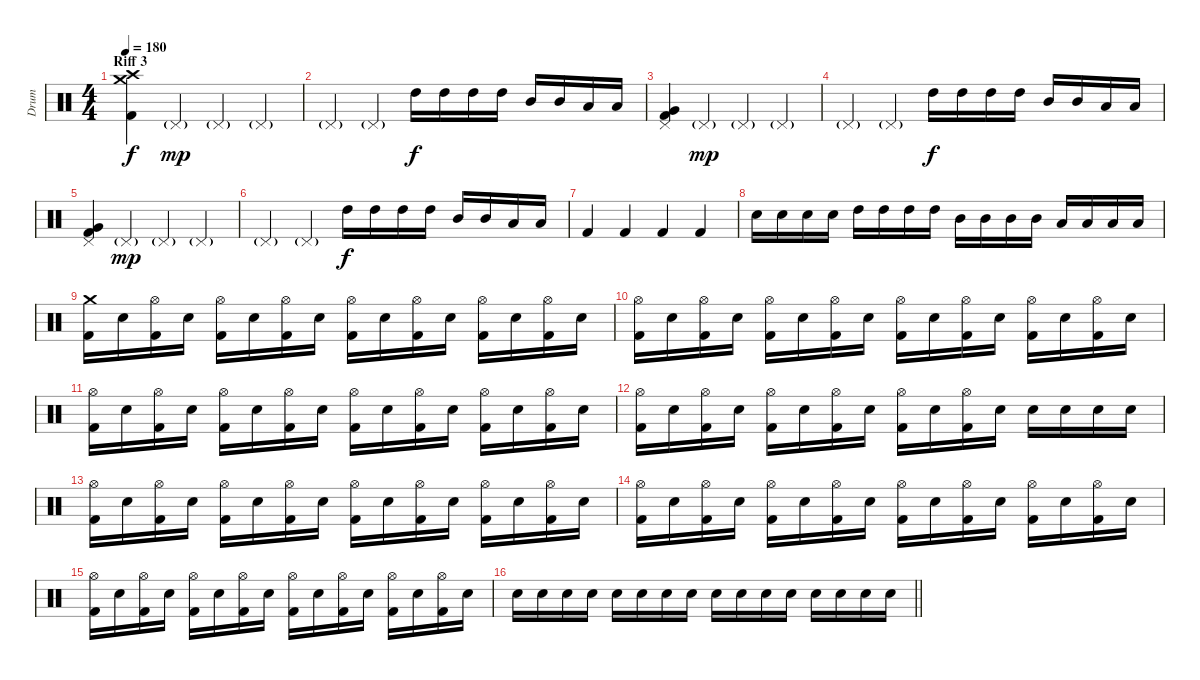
\track ("Drum" "Drum") {instrument percussion}
\staff {score}
\articulation defaults
\ts (4 4)
\section ("" "Riff 3")
\tempo 180
\clef neutral
\ks c
("Crash medium (hit)" "Crash high (hit)" "Kick (hit) 2").4{dy f} "Pedal Hi-Hat (hit)"{g}.4{dy mp} "Pedal Hi-Hat (hit)"{g}.4 "Pedal Hi-Hat (hit)"{g}.4 |
"Pedal Hi-Hat (hit)"{g}.4 "Pedal Hi-Hat (hit)"{g}.4 "High Tom (hit)".16{dy f} "High Tom (hit)".16 "High Tom (hit)".16 "High Tom (hit)".16 "Mid Tom (hit)".16 "Mid Tom (hit)".16 "Low Tom (hit)".16 "Low Tom (hit)".16 |
("Pedal Hi-Hat (hit)" "Very Low Tom (hit)" "Kick (hit) 2").4 "Pedal Hi-Hat (hit)"{g}.4{dy mp} "Pedal Hi-Hat (hit)"{g}.4 "Pedal Hi-Hat (hit)"{g}.4 |
"Pedal Hi-Hat (hit)"{g}.4 "Pedal Hi-Hat (hit)"{g}.4 "High Tom (hit)".16{dy f} "High Tom (hit)".16 "High Tom (hit)".16 "High Tom (hit)".16 "Mid Tom (hit)".16 "Mid Tom (hit)".16 "Low Tom (hit)".16 "Low Tom (hit)".16 |
("Pedal Hi-Hat (hit)" "Very Low Tom (hit)" "Kick (hit) 2").4 "Pedal Hi-Hat (hit)"{g}.4{dy mp} "Pedal Hi-Hat (hit)"{g}.4 "Pedal Hi-Hat (hit)"{g}.4 |
"Pedal Hi-Hat (hit)"{g}.4 "Pedal Hi-Hat (hit)"{g}.4 "High Tom (hit)".16{dy f} "High Tom (hit)".16 "High Tom (hit)".16 "High Tom (hit)".16 "Mid Tom (hit)".16 "Mid Tom (hit)".16 "Low Tom (hit)".16 "Low Tom (hit)".16 |
"Kick (hit) 2".4 "Kick (hit) 2".4 "Kick (hit) 2".4 "Kick (hit) 2".4 |
"Electric Snare (hit)".16 "Electric Snare (hit)".16 "Electric Snare (hit)".16 "Electric Snare (hit)".16 "High Tom (hit)".16 "High Tom (hit)".16 "High Tom (hit)".16 "High Tom (hit)".16 "Mid Tom (hit)".16 "Mid Tom (hit)".16 "Mid Tom (hit)".16 "Mid Tom (hit)".16 "Low Tom (hit)".16 "Low Tom (hit)".16 "Low Tom (hit)".16 "Low Tom (hit)".16 |
("Crash medium (hit)" "Kick (hit) 2").16 "Electric Snare (hit)".16 ("Hi-Hat (open)" "Kick (hit) 2").16 "Electric Snare (hit)".16 ("Hi-Hat (open)" "Kick (hit) 2").16 "Electric Snare (hit)".16 ("Hi-Hat (open)" "Kick (hit) 2").16 "Electric Snare (hit)".16 ("Hi-Hat (open)" "Kick (hit) 2").16 "Electric Snare (hit)".16 ("Hi-Hat (open)" "Kick (hit) 2").16 "Electric Snare (hit)".16 ("Hi-Hat (open)" "Kick (hit) 2").16 "Electric Snare (hit)".16 ("Hi-Hat (open)" "Kick (hit) 2").16 "Electric Snare (hit)".16 |
("Hi-Hat (open)" "Kick (hit) 2").16 "Electric Snare (hit)".16 ("Hi-Hat (open)" "Kick (hit) 2").16 "Electric Snare (hit)".16 ("Hi-Hat (open)" "Kick (hit) 2").16 "Electric Snare (hit)".16 ("Hi-Hat (open)" "Kick (hit) 2").16 "Electric Snare (hit)".16 ("Hi-Hat (open)" "Kick (hit) 2").16 "Electric Snare (hit)".16 ("Hi-Hat (open)" "Kick (hit) 2").16 "Electric Snare (hit)".16 ("Hi-Hat (open)" "Kick (hit) 2").16 "Electric Snare (hit)".16 ("Hi-Hat (open)" "Kick (hit) 2").16 "Electric Snare (hit)".16 |
("Hi-Hat (open)" "Kick (hit) 2").16 "Electric Snare (hit)".16 ("Hi-Hat (open)" "Kick (hit) 2").16 "Electric Snare (hit)".16 ("Hi-Hat (open)" "Kick (hit) 2").16 "Electric Snare (hit)".16 ("Hi-Hat (open)" "Kick (hit) 2").16 "Electric Snare (hit)".16 ("Hi-Hat (open)" "Kick (hit) 2").16 "Electric Snare (hit)".16 ("Hi-Hat (open)" "Kick (hit) 2").16 "Electric Snare (hit)".16 ("Hi-Hat (open)" "Kick (hit) 2").16 "Electric Snare (hit)".16 ("Hi-Hat (open)" "Kick (hit) 2").16 "Electric Snare (hit)".16 |
("Hi-Hat (open)" "Kick (hit) 2").16 "Electric Snare (hit)".16 ("Hi-Hat (open)" "Kick (hit) 2").16 "Electric Snare (hit)".16 ("Hi-Hat (open)" "Kick (hit) 2").16 "Electric Snare (hit)".16 ("Hi-Hat (open)" "Kick (hit) 2").16 "Electric Snare (hit)".16 ("Hi-Hat (open)" "Kick (hit) 2").16 "Electric Snare (hit)".16 ("Hi-Hat (open)" "Kick (hit) 2").16 "Electric Snare (hit)".16 "Electric Snare (hit)".16 "Electric Snare (hit)".16 "Electric Snare (hit)".16 "Electric Snare (hit)".16 |
("Hi-Hat (open)" "Kick (hit) 2").16 "Electric Snare (hit)".16 ("Hi-Hat (open)" "Kick (hit) 2").16 "Electric Snare (hit)".16 ("Hi-Hat (open)" "Kick (hit) 2").16 "Electric Snare (hit)".16 ("Hi-Hat (open)" "Kick (hit) 2").16 "Electric Snare (hit)".16 ("Hi-Hat (open)" "Kick (hit) 2").16 "Electric Snare (hit)".16 ("Hi-Hat (open)" "Kick (hit) 2").16 "Electric Snare (hit)".16 ("Hi-Hat (open)" "Kick (hit) 2").16 "Electric Snare (hit)".16 ("Hi-Hat (open)" "Kick (hit) 2").16 "Electric Snare (hit)".16 |
("Hi-Hat (open)" "Kick (hit) 2").16 "Electric Snare (hit)".16 ("Hi-Hat (open)" "Kick (hit) 2").16 "Electric Snare (hit)".16 ("Hi-Hat (open)" "Kick (hit) 2").16 "Electric Snare (hit)".16 ("Hi-Hat (open)" "Kick (hit) 2").16 "Electric Snare (hit)".16 ("Hi-Hat (open)" "Kick (hit) 2").16 "Electric Snare (hit)".16 ("Hi-Hat (open)" "Kick (hit) 2").16 "Electric Snare (hit)".16 ("Hi-Hat (open)" "Kick (hit) 2").16 "Electric Snare (hit)".16 ("Hi-Hat (open)" "Kick (hit) 2").16 "Electric Snare (hit)".16 |
("Hi-Hat (open)" "Kick (hit) 2").16 "Electric Snare (hit)".16 ("Hi-Hat (open)" "Kick (hit) 2").16 "Electric Snare (hit)".16 ("Hi-Hat (open)" "Kick (hit) 2").16 "Electric Snare (hit)".16 ("Hi-Hat (open)" "Kick (hit) 2").16 "Electric Snare (hit)".16 ("Hi-Hat (open)" "Kick (hit) 2").16 "Electric Snare (hit)".16 ("Hi-Hat (open)" "Kick (hit) 2").16 "Electric Snare (hit)".16 ("Hi-Hat (open)" "Kick (hit) 2").16 "Electric Snare (hit)".16 ("Hi-Hat (open)" "Kick (hit) 2").16 "Electric Snare (hit)".16 |
\barLineRight lightlight "Electric Snare (hit)".16 "Electric Snare (hit)".16 "Electric Snare (hit)".16 "Electric Snare (hit)".16 "Electric Snare (hit)".16 "Electric Snare (hit)".16 "Electric Snare (hit)".16 "Electric Snare (hit)".16 "Electric Snare (hit)".16 "Electric Snare (hit)".16 "Electric Snare (hit)".16 "Electric Snare (hit)".16 "Electric Snare (hit)".16 "Electric Snare (hit)".16 "Electric Snare (hit)".16 "Electric Snare (hit)".16
